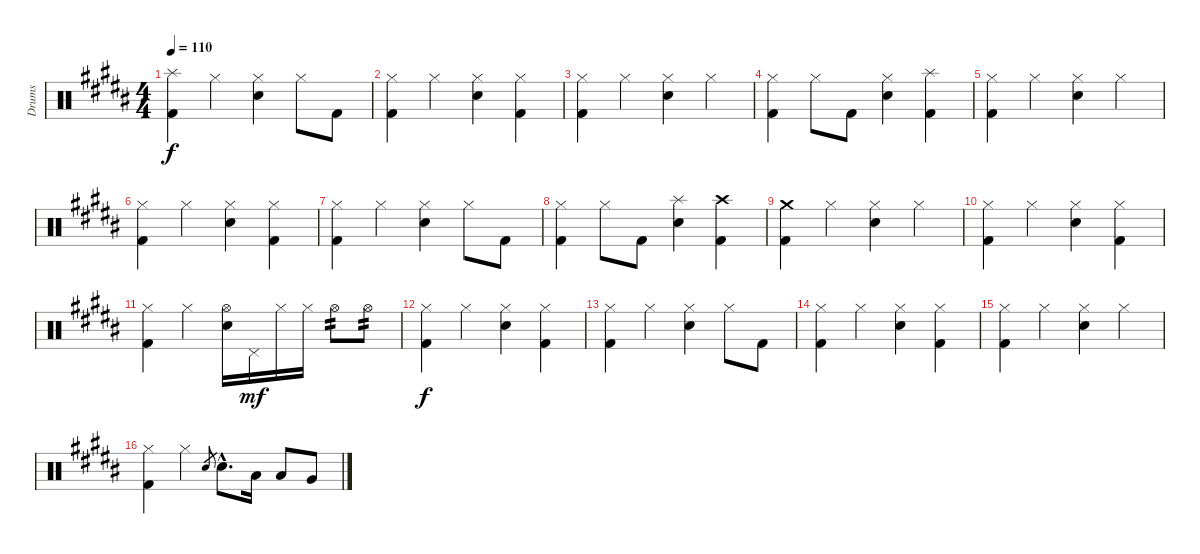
\track ("Drums" "Drums") {instrument percussion}
\staff {score}
\articulation defaults
\ts (4 4)
\section ("" "")
\tempo 110
\clef neutral
\ks b
("Splash (hit)" "Kick (hit) 2").4{dy f} "Hi-Hat (closed)".4 ("Hi-Hat (closed)" "Electric Snare (hit)").4 "Hi-Hat (closed)".8 "Kick (hit) 2".8 |
("Hi-Hat (closed)" "Kick (hit) 2").4 "Hi-Hat (closed)".4 ("Hi-Hat (closed)" "Electric Snare (hit)").4 ("Hi-Hat (closed)" "Kick (hit) 2").4 |
("Hi-Hat (closed)" "Kick (hit) 2").4 "Hi-Hat (closed)".4 ("Hi-Hat (closed)" "Electric Snare (hit)").4 "Hi-Hat (closed)".4 |
("Hi-Hat (closed)" "Kick (hit) 2").4 "Hi-Hat (closed)".8 "Kick (hit) 2".8 ("Hi-Hat (closed)" "Electric Snare (hit)").4 ("Splash (hit)" "Kick (hit) 2").4 |
("Hi-Hat (closed)" "Kick (hit) 2").4 "Hi-Hat (closed)".4 ("Hi-Hat (closed)" "Electric Snare (hit)").4 "Hi-Hat (closed)".4 |
("Hi-Hat (closed)" "Kick (hit) 2").4 "Hi-Hat (closed)".4 ("Hi-Hat (closed)" "Electric Snare (hit)").4 ("Hi-Hat (closed)" "Kick (hit) 2").4 |
("Hi-Hat (closed)" "Kick (hit) 2").4 "Hi-Hat (closed)".4 ("Hi-Hat (closed)" "Electric Snare (hit)").4 "Hi-Hat (closed)".8 "Kick (hit) 2".8 |
("Hi-Hat (closed)" "Kick (hit) 2").4 "Hi-Hat (closed)".8 "Kick (hit) 2".8 ("Splash (hit)" "Electric Snare (hit)").4 ("Crash high (hit)" "Kick (hit) 2").4 |
("Crash medium (hit)" "Kick (hit) 2").4 "Hi-Hat (closed)".4 ("Hi-Hat (closed)" "Electric Snare (hit)").4 "Hi-Hat (closed)".4 |
("Hi-Hat (closed)" "Kick (hit) 2").4 "Hi-Hat (closed)".4 ("Hi-Hat (closed)" "Electric Snare (hit)").4 ("Hi-Hat (closed)" "Kick (hit) 2").4 |
("Hi-Hat (closed)" "Kick (hit) 2").4 "Hi-Hat (closed)".4 ("Hi-Hat (open)" "Electric Snare (hit)").16 "Pedal Hi-Hat (hit)".16{dy mf} "Hi-Hat (closed)".16 "Hi-Hat (closed)".16 "Hi-Hat (open)".8{tp 2} "Hi-Hat (open)".8{tp 2} |
("Hi-Hat (closed)" "Kick (hit) 2").4{dy f} "Hi-Hat (closed)".4 ("Hi-Hat (closed)" "Electric Snare (hit)").4 ("Hi-Hat (closed)" "Kick (hit) 2").4 |
("Hi-Hat (closed)" "Kick (hit) 2").4 "Hi-Hat (closed)".4 ("Hi-Hat (closed)" "Electric Snare (hit)").4 "Hi-Hat (closed)".8 "Kick (hit) 2".8 |
("Hi-Hat (closed)" "Kick (hit) 2").4 "Hi-Hat (closed)".4 ("Hi-Hat (closed)" "Electric Snare (hit)").4 ("Hi-Hat (closed)" "Kick (hit) 2").4 |
("Hi-Hat (closed)" "Kick (hit) 2").4 "Hi-Hat (closed)".4 ("Hi-Hat (closed)" "Electric Snare (hit)").4 "Hi-Hat (closed)".4 |
("Hi-Hat (closed)" "Kick (hit) 2").4 "Hi-Hat (closed)".4 "Electric Snare (hit)".8{gr} "Electric Snare (hit)"{hac}.8{d} "Low Tom (hit)".16 "Low Tom (hit)".8 "Very Low Tom (hit)".8
